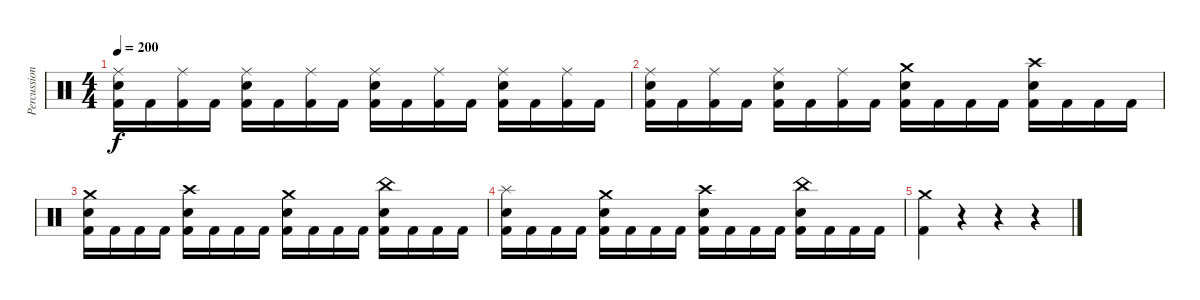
\track ("Percussions" "Percussion") {instrument percussion}
\staff {score}
\articulation defaults
\ts (4 4)
\tempo 200
\clef neutral
\ks c
("Ride (middle)" "Electric Snare (hit)" "Kick (hit) 2").16{dy f} "Kick (hit) 2".16 ("Ride (middle)" "Kick (hit) 2").16 "Kick (hit) 2".16 ("Ride (middle)" "Electric Snare (hit)" "Kick (hit) 2").16 "Kick (hit) 2".16 ("Ride (middle)" "Kick (hit) 2").16 "Kick (hit) 2".16 ("Ride (middle)" "Electric Snare (hit)" "Kick (hit) 2").16 "Kick (hit) 2".16 ("Ride (middle)" "Kick (hit) 2").16 "Kick (hit) 2".16 ("Ride (middle)" "Electric Snare (hit)" "Kick (hit) 2").16 "Kick (hit) 2".16 ("Ride (middle)" "Kick (hit) 2").16 "Kick (hit) 2".16 |
("Ride (middle)" "Electric Snare (hit)" "Kick (hit) 2").16 "Kick (hit) 2".16 ("Ride (middle)" "Kick (hit) 2").16 "Kick (hit) 2".16 ("Ride (middle)" "Electric Snare (hit)" "Kick (hit) 2").16 "Kick (hit) 2".16 ("Ride (middle)" "Kick (hit) 2").16 "Kick (hit) 2".16 ("Crash medium (hit)" "Electric Snare (hit)" "Kick (hit) 2").16 "Kick (hit) 2".16 "Kick (hit) 2".16 "Kick (hit) 2".16 ("Crash high (hit)" "Electric Snare (hit)" "Kick (hit) 2").16 "Kick (hit) 2".16 "Kick (hit) 2".16 "Kick (hit) 2".16 |
("Crash medium (hit)" "Electric Snare (hit)" "Kick (hit) 2").16 "Kick (hit) 2".16 "Kick (hit) 2".16 "Kick (hit) 2".16 ("Crash high (hit)" "Electric Snare (hit)" "Kick (hit) 2").16 "Kick (hit) 2".16 "Kick (hit) 2".16 "Kick (hit) 2".16 ("Crash medium (hit)" "Electric Snare (hit)" "Kick (hit) 2").16 "Kick (hit) 2".16 "Kick (hit) 2".16 "Kick (hit) 2".16 ("China (hit)" "Electric Snare (hit)" "Kick (hit) 2").16 "Kick (hit) 2".16 "Kick (hit) 2".16 "Kick (hit) 2".16 |
("Splash (hit)" "Electric Snare (hit)" "Kick (hit) 2").16 "Kick (hit) 2".16 "Kick (hit) 2".16 "Kick (hit) 2".16 ("Crash medium (hit)" "Electric Snare (hit)" "Kick (hit) 2").16 "Kick (hit) 2".16 "Kick (hit) 2".16 "Kick (hit) 2".16 ("Crash high (hit)" "Electric Snare (hit)" "Kick (hit) 2").16 "Kick (hit) 2".16 "Kick (hit) 2".16 "Kick (hit) 2".16 ("China (hit)" "Electric Snare (hit)" "Kick (hit) 2").16 "Kick (hit) 2".16 "Kick (hit) 2".16 "Kick (hit) 2".16 |
("Crash medium (hit)" "Kick (hit) 2").4 r.4 r.4 r.4
